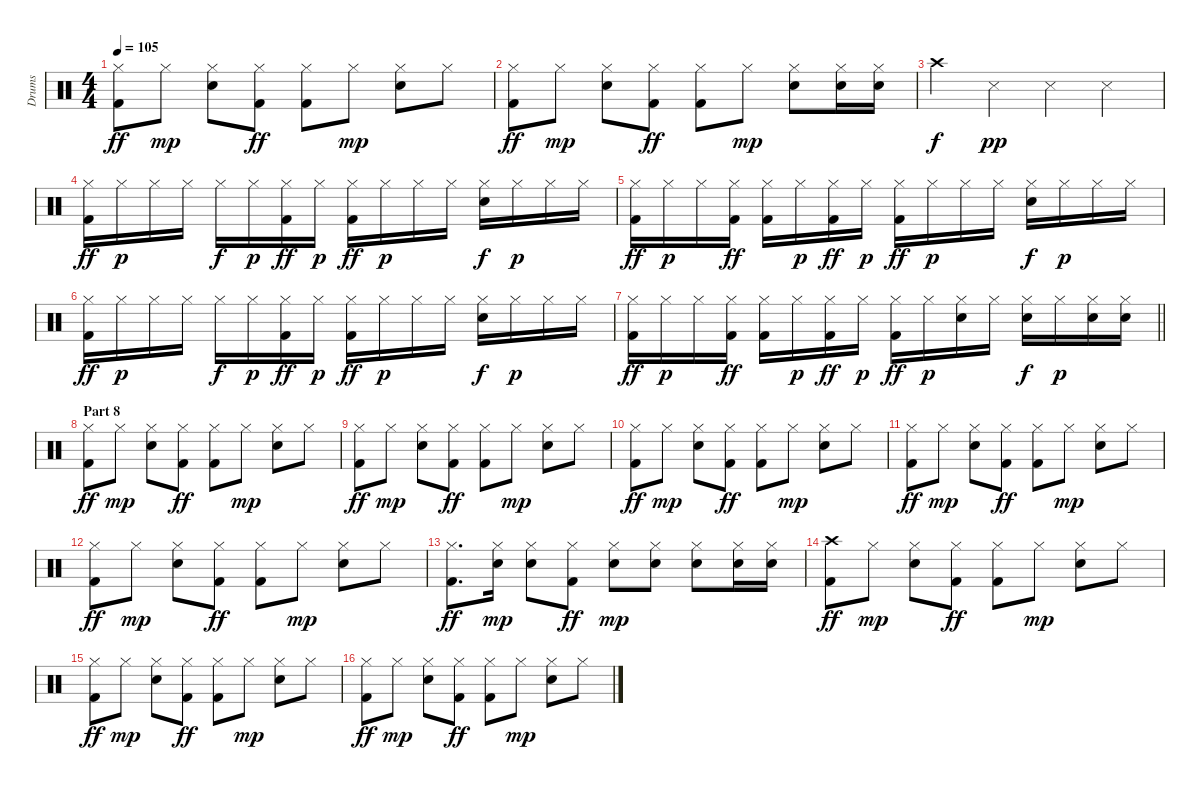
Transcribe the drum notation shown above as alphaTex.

\track ("Drums" "Drums") {instrument percussion}
\staff {score}
\articulation defaults
\ts (4 4)
\tempo 105
\clef neutral
\ks c
("Hi-Hat (closed)" "Kick (hit) 2").8{dy ff} "Hi-Hat (closed)".8{dy mp} ("Hi-Hat (closed)" "Electric Snare (hit)").8 ("Hi-Hat (closed)" "Kick (hit) 2").8{dy ff} ("Hi-Hat (closed)" "Kick (hit) 2").8 "Hi-Hat (closed)".8{dy mp} ("Hi-Hat (closed)" "Electric Snare (hit)").8 "Hi-Hat (closed)".8 |
("Hi-Hat (closed)" "Kick (hit) 2").8{dy ff} "Hi-Hat (closed)".8{dy mp} ("Hi-Hat (closed)" "Electric Snare (hit)").8 ("Hi-Hat (closed)" "Kick (hit) 2").8{dy ff} ("Hi-Hat (closed)" "Kick (hit) 2").8 "Hi-Hat (closed)".8{dy mp} ("Hi-Hat (closed)" "Electric Snare (hit)").8 ("Hi-Hat (closed)" "Electric Snare (hit)").16 ("Hi-Hat (closed)" "Electric Snare (hit)").16 |
"Crash high (hit)".4{dy f} "Snare (side stick) 3".4{dy pp} "Snare (side stick) 3".4 "Snare (side stick) 3".4 |
("Hi-Hat (closed)" "Kick (hit) 2").16{dy ff} "Hi-Hat (closed)".16{dy p} "Hi-Hat (closed)".16 "Hi-Hat (closed)".16 "Hi-Hat (closed)".16{dy f} "Hi-Hat (closed)".16{dy p} ("Hi-Hat (closed)" "Kick (hit) 2").16{dy ff} "Hi-Hat (closed)".16{dy p} ("Hi-Hat (closed)" "Kick (hit) 2").16{dy ff} "Hi-Hat (closed)".16{dy p} "Hi-Hat (closed)".16 "Hi-Hat (closed)".16 ("Hi-Hat (closed)" "Electric Snare (hit)").16{dy f} "Hi-Hat (closed)".16{dy p} "Hi-Hat (closed)".16 "Hi-Hat (closed)".16 |
("Hi-Hat (closed)" "Kick (hit) 2").16{dy ff} "Hi-Hat (closed)".16{dy p} "Hi-Hat (closed)".16 ("Hi-Hat (closed)" "Kick (hit) 2").16{dy ff} ("Hi-Hat (closed)" "Kick (hit) 2").16 "Hi-Hat (closed)".16{dy p} ("Hi-Hat (closed)" "Kick (hit) 2").16{dy ff} "Hi-Hat (closed)".16{dy p} ("Hi-Hat (closed)" "Kick (hit) 2").16{dy ff} "Hi-Hat (closed)".16{dy p} "Hi-Hat (closed)".16 "Hi-Hat (closed)".16 ("Hi-Hat (closed)" "Electric Snare (hit)").16{dy f} "Hi-Hat (closed)".16{dy p} "Hi-Hat (closed)".16 "Hi-Hat (closed)".16 |
("Hi-Hat (closed)" "Kick (hit) 2").16{dy ff} "Hi-Hat (closed)".16{dy p} "Hi-Hat (closed)".16 "Hi-Hat (closed)".16 "Hi-Hat (closed)".16{dy f} "Hi-Hat (closed)".16{dy p} ("Hi-Hat (closed)" "Kick (hit) 2").16{dy ff} "Hi-Hat (closed)".16{dy p} ("Hi-Hat (closed)" "Kick (hit) 2").16{dy ff} "Hi-Hat (closed)".16{dy p} "Hi-Hat (closed)".16 "Hi-Hat (closed)".16 ("Hi-Hat (closed)" "Electric Snare (hit)").16{dy f} "Hi-Hat (closed)".16{dy p} "Hi-Hat (closed)".16 "Hi-Hat (closed)".16 |
\barLineRight lightlight
("Hi-Hat (closed)" "Kick (hit) 2").16{dy ff} "Hi-Hat (closed)".16{dy p} "Hi-Hat (closed)".16 ("Hi-Hat (closed)" "Kick (hit) 2").16{dy ff} ("Hi-Hat (closed)" "Kick (hit) 2").16 "Hi-Hat (closed)".16{dy p} ("Hi-Hat (closed)" "Kick (hit) 2").16{dy ff} "Hi-Hat (closed)".16{dy p} ("Hi-Hat (closed)" "Kick (hit) 2").16{dy ff} "Hi-Hat (closed)".16{dy p} ("Hi-Hat (closed)" "Electric Snare (hit)").16 "Hi-Hat (closed)".16 ("Hi-Hat (closed)" "Electric Snare (hit)").16{dy f} "Hi-Hat (closed)".16{dy p} ("Hi-Hat (closed)" "Electric Snare (hit)").16 ("Hi-Hat (closed)" "Electric Snare (hit)").16 |
\section ("" "Part 8")
("Hi-Hat (closed)" "Kick (hit) 2").8{dy ff} "Hi-Hat (closed)".8{dy mp} ("Hi-Hat (closed)" "Electric Snare (hit)").8 ("Hi-Hat (closed)" "Kick (hit) 2").8{dy ff} ("Hi-Hat (closed)" "Kick (hit) 2").8 "Hi-Hat (closed)".8{dy mp} ("Hi-Hat (closed)" "Electric Snare (hit)").8 "Hi-Hat (closed)".8 |
("Hi-Hat (closed)" "Kick (hit) 2").8{dy ff} "Hi-Hat (closed)".8{dy mp} ("Hi-Hat (closed)" "Electric Snare (hit)").8 ("Hi-Hat (closed)" "Kick (hit) 2").8{dy ff} ("Hi-Hat (closed)" "Kick (hit) 2").8 "Hi-Hat (closed)".8{dy mp} ("Hi-Hat (closed)" "Electric Snare (hit)").8 "Hi-Hat (closed)".8 |
("Hi-Hat (closed)" "Kick (hit) 2").8{dy ff} "Hi-Hat (closed)".8{dy mp} ("Hi-Hat (closed)" "Electric Snare (hit)").8 ("Hi-Hat (closed)" "Kick (hit) 2").8{dy ff} ("Hi-Hat (closed)" "Kick (hit) 2").8 "Hi-Hat (closed)".8{dy mp} ("Hi-Hat (closed)" "Electric Snare (hit)").8 "Hi-Hat (closed)".8 |
("Hi-Hat (closed)" "Kick (hit) 2").8{dy ff} "Hi-Hat (closed)".8{dy mp} ("Hi-Hat (closed)" "Electric Snare (hit)").8 ("Hi-Hat (closed)" "Kick (hit) 2").8{dy ff} ("Hi-Hat (closed)" "Kick (hit) 2").8 "Hi-Hat (closed)".8{dy mp} ("Hi-Hat (closed)" "Electric Snare (hit)").8 "Hi-Hat (closed)".8 |
("Hi-Hat (closed)" "Kick (hit) 2").8{dy ff} "Hi-Hat (closed)".8{dy mp} ("Hi-Hat (closed)" "Electric Snare (hit)").8 ("Hi-Hat (closed)" "Kick (hit) 2").8{dy ff} ("Hi-Hat (closed)" "Kick (hit) 2").8 "Hi-Hat (closed)".8{dy mp} ("Hi-Hat (closed)" "Electric Snare (hit)").8 "Hi-Hat (closed)".8 |
("Hi-Hat (closed)" "Kick (hit) 2").8{d dy ff} ("Hi-Hat (closed)" "Electric Snare (hit)").16{dy mp} ("Hi-Hat (closed)" "Electric Snare (hit)").8 ("Hi-Hat (closed)" "Kick (hit) 2").8{dy ff} ("Hi-Hat (closed)" "Electric Snare (hit)").8{dy mp} ("Hi-Hat (closed)" "Electric Snare (hit)").8 ("Hi-Hat (closed)" "Electric Snare (hit)").8 ("Hi-Hat (closed)" "Electric Snare (hit)").16 ("Hi-Hat (closed)" "Electric Snare (hit)").16 |
("Crash high (hit)" "Kick (hit) 2").8{dy ff} "Hi-Hat (closed)".8{dy mp} ("Hi-Hat (closed)" "Electric Snare (hit)").8 ("Hi-Hat (closed)" "Kick (hit) 2").8{dy ff} ("Hi-Hat (closed)" "Kick (hit) 2").8 "Hi-Hat (closed)".8{dy mp} ("Hi-Hat (closed)" "Electric Snare (hit)").8 "Hi-Hat (closed)".8 |
("Hi-Hat (closed)" "Kick (hit) 2").8{dy ff} "Hi-Hat (closed)".8{dy mp} ("Hi-Hat (closed)" "Electric Snare (hit)").8 ("Hi-Hat (closed)" "Kick (hit) 2").8{dy ff} ("Hi-Hat (closed)" "Kick (hit) 2").8 "Hi-Hat (closed)".8{dy mp} ("Hi-Hat (closed)" "Electric Snare (hit)").8 "Hi-Hat (closed)".8 |
("Hi-Hat (closed)" "Kick (hit) 2").8{dy ff} "Hi-Hat (closed)".8{dy mp} ("Hi-Hat (closed)" "Electric Snare (hit)").8 ("Hi-Hat (closed)" "Kick (hit) 2").8{dy ff} ("Hi-Hat (closed)" "Kick (hit) 2").8 "Hi-Hat (closed)".8{dy mp} ("Hi-Hat (closed)" "Electric Snare (hit)").8 "Hi-Hat (closed)".8
